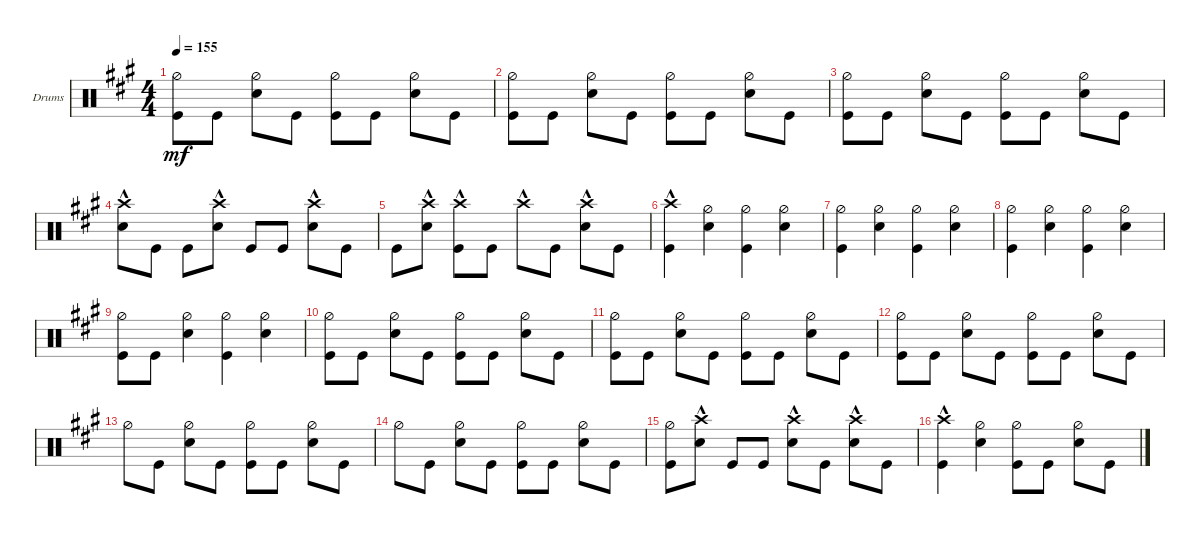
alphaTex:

\defaultSystemsLayout 4
\bracketExtendMode groupsimilarinstruments
\firstSystemTrackNameOrientation horizontal
\otherSystemsTrackNameOrientation horizontal
\track ("John Bonham" "Drums") {instrument percussion}
\staff {score}
\articulation defaults
\ts (4 4)
\tempo 155
\clef neutral
\ks a
("Hi-Hat (half)" "Kick (hit)").8{dy mf} "Kick (hit)".8 ("Hi-Hat (half)" "Snare (hit) 2").8 "Kick (hit)".8 ("Hi-Hat (half)" "Kick (hit)").8 "Kick (hit)".8 ("Hi-Hat (half)" "Snare (hit) 2").8 "Kick (hit)".8 |
("Hi-Hat (half)" "Kick (hit)").8 "Kick (hit)".8 ("Hi-Hat (half)" "Snare (hit) 2").8 "Kick (hit)".8 ("Hi-Hat (half)" "Kick (hit)").8 "Kick (hit)".8 ("Hi-Hat (half)" "Snare (hit) 2").8 "Kick (hit)".8 |
("Hi-Hat (half)" "Kick (hit)").8 "Kick (hit)".8 ("Hi-Hat (half)" "Snare (hit) 2").8 "Kick (hit)".8 ("Hi-Hat (half)" "Kick (hit)").8 "Kick (hit)".8 ("Hi-Hat (half)" "Snare (hit) 2").8 "Kick (hit)".8 |
("Crash high (hit)"{hac} "Snare (hit) 2"{hac}).8 "Kick (hit)".8 "Kick (hit)".8 ("Snare (hit) 2"{hac} "Crash high (hit)"{hac}).8 "Kick (hit)".8 "Kick (hit)".8 ("Snare (hit) 2"{hac} "Crash high (hit)"{hac}).8 "Kick (hit)".8 |
"Kick (hit)".8 ("Snare (hit) 2" "Crash high (hit)"{hac}).8 ("Crash high (hit)"{hac} "Kick (hit)"{hac}).8 "Kick (hit)".8 "Crash high (hit)"{hac}.8 "Kick (hit)".8 ("Snare (hit) 2"{hac} "Crash high (hit)"{hac}).8 "Kick (hit)".8 |
("Kick (hit)" "Crash high (hit)"{hac}).4 ("Snare (hit) 2" "Hi-Hat (half)").4 ("Hi-Hat (half)" "Kick (hit)").4 ("Hi-Hat (half)" "Snare (hit) 2").4 |
("Hi-Hat (half)" "Kick (hit)").4 ("Hi-Hat (half)" "Snare (hit) 2").4 ("Hi-Hat (half)" "Kick (hit)").4 ("Hi-Hat (half)" "Snare (hit) 2").4 |
("Hi-Hat (half)" "Kick (hit)").4 ("Hi-Hat (half)" "Snare (hit) 2").4 ("Hi-Hat (half)" "Kick (hit)").4 ("Hi-Hat (half)" "Snare (hit) 2").4 |
("Hi-Hat (half)" "Kick (hit)").8 "Kick (hit)".8 ("Hi-Hat (half)" "Snare (hit) 2").4 ("Hi-Hat (half)" "Kick (hit)").4 ("Hi-Hat (half)" "Snare (hit) 2").4 |
("Kick (hit)" "Hi-Hat (half)").8 "Kick (hit)".8 ("Hi-Hat (half)" "Snare (hit) 2").8 "Kick (hit)".8 ("Kick (hit)" "Hi-Hat (half)").8 "Kick (hit)".8 ("Hi-Hat (half)" "Snare (hit) 2").8 "Kick (hit)".8 |
("Kick (hit)" "Hi-Hat (half)").8 "Kick (hit)".8 ("Hi-Hat (half)" "Snare (hit) 2").8 "Kick (hit)".8 ("Kick (hit)" "Hi-Hat (half)").8 "Kick (hit)".8 ("Hi-Hat (half)" "Snare (hit) 2").8 "Kick (hit)".8 |
("Kick (hit)" "Hi-Hat (half)").8 "Kick (hit)".8 ("Hi-Hat (half)" "Snare (hit) 2").8 "Kick (hit)".8 ("Kick (hit)" "Hi-Hat (half)").8 "Kick (hit)".8 ("Hi-Hat (half)" "Snare (hit) 2").8 "Kick (hit)".8 |
"Hi-Hat (half)".8 "Kick (hit)".8 ("Snare (hit) 2" "Hi-Hat (half)").8 "Kick (hit)".8 ("Kick (hit)" "Hi-Hat (half)").8 "Kick (hit)".8 ("Hi-Hat (half)" "Snare (hit) 2").8 "Kick (hit)".8 |
"Hi-Hat (half)".8 "Kick (hit)".8 ("Snare (hit) 2" "Hi-Hat (half)").8 "Kick (hit)".8 ("Kick (hit)" "Hi-Hat (half)").8 "Kick (hit)".8 ("Hi-Hat (half)" "Snare (hit) 2").8 "Kick (hit)".8 |
("Kick (hit)" "Hi-Hat (half)").8 ("Crash high (hit)"{hac} "Snare (hit) 2"{hac}).8 "Kick (hit)".8 "Kick (hit)".8 ("Snare (hit) 2"{hac} "Crash high (hit)").8 "Kick (hit)".8 ("Snare (hit) 2"{hac} "Crash high (hit)").8 "Kick (hit)".8 |
("Crash high (hit)"{hac} "Kick (hit)").4 ("Hi-Hat (half)" "Snare (hit) 2").4 ("Hi-Hat (half)" "Kick (hit)").8 "Kick (hit)".8 ("Hi-Hat (half)" "Snare (hit) 2").8 "Kick (hit)".8
